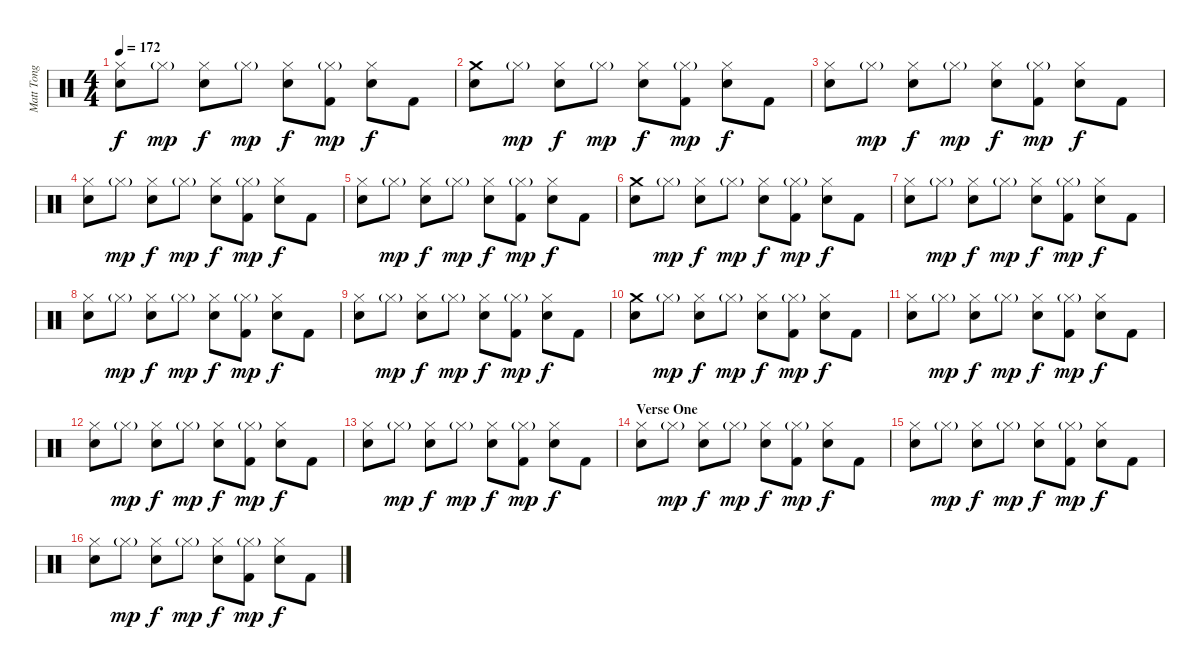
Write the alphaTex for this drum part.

\track ("Matt Tong" "Matt Tong") {instrument percussion}
\staff {score}
\articulation defaults
\ts (4 4)
\tempo 172
\clef neutral
\ks c
("Hi-Hat (closed)" "Snare (hit) 2").8{dy f} "Hi-Hat (closed)"{g}.8{dy mp} ("Hi-Hat (closed)" "Snare (hit) 2").8{dy f} "Hi-Hat (closed)"{g}.8{dy mp} ("Hi-Hat (closed)" "Snare (hit) 2").8{dy f} ("Hi-Hat (closed)"{g} "Kick (hit) 2").8{dy mp} ("Hi-Hat (closed)" "Snare (hit) 2").8{dy f} "Kick (hit) 2".8 |
("Crash medium (hit)" "Snare (hit) 2").8 "Hi-Hat (closed)"{g}.8{dy mp} ("Hi-Hat (closed)" "Snare (hit) 2").8{dy f} "Hi-Hat (closed)"{g}.8{dy mp} ("Hi-Hat (closed)" "Snare (hit) 2").8{dy f} ("Hi-Hat (closed)"{g} "Kick (hit) 2").8{dy mp} ("Hi-Hat (closed)" "Snare (hit) 2").8{dy f} "Kick (hit) 2".8 |
("Hi-Hat (closed)" "Snare (hit) 2").8 "Hi-Hat (closed)"{g}.8{dy mp} ("Hi-Hat (closed)" "Snare (hit) 2").8{dy f} "Hi-Hat (closed)"{g}.8{dy mp} ("Hi-Hat (closed)" "Snare (hit) 2").8{dy f} ("Hi-Hat (closed)"{g} "Kick (hit) 2").8{dy mp} ("Hi-Hat (closed)" "Snare (hit) 2").8{dy f} "Kick (hit) 2".8 |
("Hi-Hat (closed)" "Snare (hit) 2").8 "Hi-Hat (closed)"{g}.8{dy mp} ("Hi-Hat (closed)" "Snare (hit) 2").8{dy f} "Hi-Hat (closed)"{g}.8{dy mp} ("Hi-Hat (closed)" "Snare (hit) 2").8{dy f} ("Hi-Hat (closed)"{g} "Kick (hit) 2").8{dy mp} ("Hi-Hat (closed)" "Snare (hit) 2").8{dy f} "Kick (hit) 2".8 |
("Hi-Hat (closed)" "Snare (hit) 2").8 "Hi-Hat (closed)"{g}.8{dy mp} ("Hi-Hat (closed)" "Snare (hit) 2").8{dy f} "Hi-Hat (closed)"{g}.8{dy mp} ("Hi-Hat (closed)" "Snare (hit) 2").8{dy f} ("Hi-Hat (closed)"{g} "Kick (hit) 2").8{dy mp} ("Hi-Hat (closed)" "Snare (hit) 2").8{dy f} "Kick (hit) 2".8 |
("Crash medium (hit)" "Snare (hit) 2").8 "Hi-Hat (closed)"{g}.8{dy mp} ("Hi-Hat (closed)" "Snare (hit) 2").8{dy f} "Hi-Hat (closed)"{g}.8{dy mp} ("Hi-Hat (closed)" "Snare (hit) 2").8{dy f} ("Hi-Hat (closed)"{g} "Kick (hit) 2").8{dy mp} ("Hi-Hat (closed)" "Snare (hit) 2").8{dy f} "Kick (hit) 2".8 |
("Hi-Hat (closed)" "Snare (hit) 2").8 "Hi-Hat (closed)"{g}.8{dy mp} ("Hi-Hat (closed)" "Snare (hit) 2").8{dy f} "Hi-Hat (closed)"{g}.8{dy mp} ("Hi-Hat (closed)" "Snare (hit) 2").8{dy f} ("Hi-Hat (closed)"{g} "Kick (hit) 2").8{dy mp} ("Hi-Hat (closed)" "Snare (hit) 2").8{dy f} "Kick (hit) 2".8 |
("Hi-Hat (closed)" "Snare (hit) 2").8 "Hi-Hat (closed)"{g}.8{dy mp} ("Hi-Hat (closed)" "Snare (hit) 2").8{dy f} "Hi-Hat (closed)"{g}.8{dy mp} ("Hi-Hat (closed)" "Snare (hit) 2").8{dy f} ("Hi-Hat (closed)"{g} "Kick (hit) 2").8{dy mp} ("Hi-Hat (closed)" "Snare (hit) 2").8{dy f} "Kick (hit) 2".8 |
("Hi-Hat (closed)" "Snare (hit) 2").8 "Hi-Hat (closed)"{g}.8{dy mp} ("Hi-Hat (closed)" "Snare (hit) 2").8{dy f} "Hi-Hat (closed)"{g}.8{dy mp} ("Hi-Hat (closed)" "Snare (hit) 2").8{dy f} ("Hi-Hat (closed)"{g} "Kick (hit) 2").8{dy mp} ("Hi-Hat (closed)" "Snare (hit) 2").8{dy f} "Kick (hit) 2".8 |
("Crash medium (hit)" "Snare (hit) 2").8 "Hi-Hat (closed)"{g}.8{dy mp} ("Hi-Hat (closed)" "Snare (hit) 2").8{dy f} "Hi-Hat (closed)"{g}.8{dy mp} ("Hi-Hat (closed)" "Snare (hit) 2").8{dy f} ("Hi-Hat (closed)"{g} "Kick (hit) 2").8{dy mp} ("Hi-Hat (closed)" "Snare (hit) 2").8{dy f} "Kick (hit) 2".8 |
("Hi-Hat (closed)" "Snare (hit) 2").8 "Hi-Hat (closed)"{g}.8{dy mp} ("Hi-Hat (closed)" "Snare (hit) 2").8{dy f} "Hi-Hat (closed)"{g}.8{dy mp} ("Hi-Hat (closed)" "Snare (hit) 2").8{dy f} ("Hi-Hat (closed)"{g} "Kick (hit) 2").8{dy mp} ("Hi-Hat (closed)" "Snare (hit) 2").8{dy f} "Kick (hit) 2".8 |
("Hi-Hat (closed)" "Snare (hit) 2").8 "Hi-Hat (closed)"{g}.8{dy mp} ("Hi-Hat (closed)" "Snare (hit) 2").8{dy f} "Hi-Hat (closed)"{g}.8{dy mp} ("Hi-Hat (closed)" "Snare (hit) 2").8{dy f} ("Hi-Hat (closed)"{g} "Kick (hit) 2").8{dy mp} ("Hi-Hat (closed)" "Snare (hit) 2").8{dy f} "Kick (hit) 2".8 |
("Hi-Hat (closed)" "Snare (hit) 2").8 "Hi-Hat (closed)"{g}.8{dy mp} ("Hi-Hat (closed)" "Snare (hit) 2").8{dy f} "Hi-Hat (closed)"{g}.8{dy mp} ("Hi-Hat (closed)" "Snare (hit) 2").8{dy f} ("Hi-Hat (closed)"{g} "Kick (hit) 2").8{dy mp} ("Hi-Hat (closed)" "Snare (hit) 2").8{dy f} "Kick (hit) 2".8 |
\section ("" "Verse One")
("Hi-Hat (closed)" "Snare (hit) 2").8 "Hi-Hat (closed)"{g}.8{dy mp} ("Hi-Hat (closed)" "Snare (hit) 2").8{dy f} "Hi-Hat (closed)"{g}.8{dy mp} ("Hi-Hat (closed)" "Snare (hit) 2").8{dy f} ("Hi-Hat (closed)"{g} "Kick (hit) 2").8{dy mp} ("Hi-Hat (closed)" "Snare (hit) 2").8{dy f} "Kick (hit) 2".8 |
("Hi-Hat (closed)" "Snare (hit) 2").8 "Hi-Hat (closed)"{g}.8{dy mp} ("Hi-Hat (closed)" "Snare (hit) 2").8{dy f} "Hi-Hat (closed)"{g}.8{dy mp} ("Hi-Hat (closed)" "Snare (hit) 2").8{dy f} ("Hi-Hat (closed)"{g} "Kick (hit) 2").8{dy mp} ("Hi-Hat (closed)" "Snare (hit) 2").8{dy f} "Kick (hit) 2".8 |
("Hi-Hat (closed)" "Snare (hit) 2").8 "Hi-Hat (closed)"{g}.8{dy mp} ("Hi-Hat (closed)" "Snare (hit) 2").8{dy f} "Hi-Hat (closed)"{g}.8{dy mp} ("Hi-Hat (closed)" "Snare (hit) 2").8{dy f} ("Hi-Hat (closed)"{g} "Kick (hit) 2").8{dy mp} ("Hi-Hat (closed)" "Snare (hit) 2").8{dy f} "Kick (hit) 2".8
